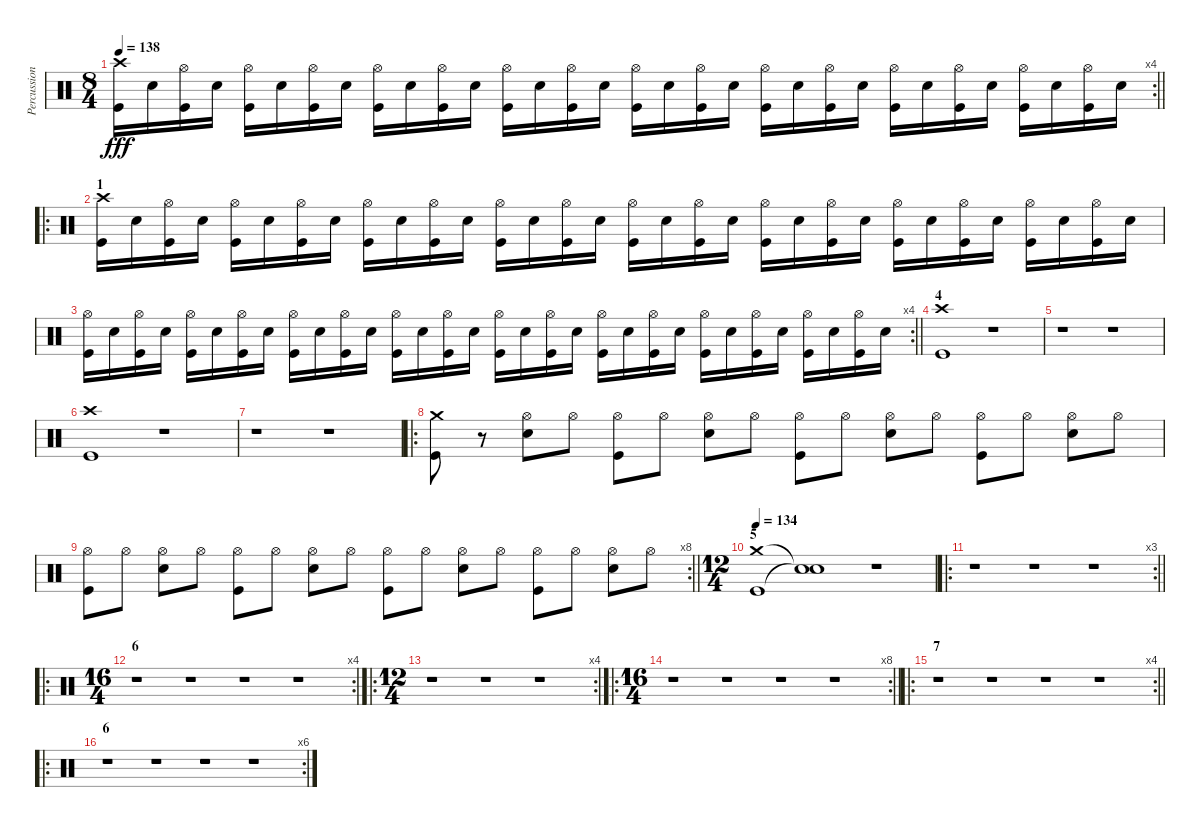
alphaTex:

\track ("Percussion" "Percussion") {instrument percussion}
\staff {score}
\articulation defaults
\rc 4
\ts (8 4)
\tempo 138
\clef neutral
\barLineRight lightlight
\ks c
("Crash high (hit)" "Kick (hit)").16{dy fff} "Snare (hit) 2".16 ("Hi-Hat (open)" "Kick (hit)").16 "Snare (hit) 2".16 ("Hi-Hat (open)" "Kick (hit)").16 "Snare (hit) 2".16 ("Hi-Hat (open)" "Kick (hit)").16 "Snare (hit) 2".16 ("Hi-Hat (open)" "Kick (hit)").16 "Snare (hit) 2".16 ("Hi-Hat (open)" "Kick (hit)").16 "Snare (hit) 2".16 ("Hi-Hat (open)" "Kick (hit)").16 "Snare (hit) 2".16 ("Hi-Hat (open)" "Kick (hit)").16 "Snare (hit) 2".16 ("Hi-Hat (open)" "Kick (hit)").16 "Snare (hit) 2".16 ("Hi-Hat (open)" "Kick (hit)").16 "Snare (hit) 2".16 ("Hi-Hat (open)" "Kick (hit)").16 "Snare (hit) 2".16 ("Hi-Hat (open)" "Kick (hit)").16 "Snare (hit) 2".16 ("Hi-Hat (open)" "Kick (hit)").16 "Snare (hit) 2".16 ("Hi-Hat (open)" "Kick (hit)").16 "Snare (hit) 2".16 ("Hi-Hat (open)" "Kick (hit)").16 "Snare (hit) 2".16 ("Hi-Hat (open)" "Kick (hit)").16 "Snare (hit) 2".16 |
\ro
\section ("" "1")
("Crash high (hit)" "Kick (hit)").16 "Snare (hit) 2".16 ("Hi-Hat (open)" "Kick (hit)").16 "Snare (hit) 2".16 ("Hi-Hat (open)" "Kick (hit)").16 "Snare (hit) 2".16 ("Hi-Hat (open)" "Kick (hit)").16 "Snare (hit) 2".16 ("Hi-Hat (open)" "Kick (hit)").16 "Snare (hit) 2".16 ("Hi-Hat (open)" "Kick (hit)").16 "Snare (hit) 2".16 ("Hi-Hat (open)" "Kick (hit)").16 "Snare (hit) 2".16 ("Hi-Hat (open)" "Kick (hit)").16 "Snare (hit) 2".16 ("Hi-Hat (open)" "Kick (hit)").16 "Snare (hit) 2".16 ("Hi-Hat (open)" "Kick (hit)").16 "Snare (hit) 2".16 ("Hi-Hat (open)" "Kick (hit)").16 "Snare (hit) 2".16 ("Hi-Hat (open)" "Kick (hit)").16 "Snare (hit) 2".16 ("Hi-Hat (open)" "Kick (hit)").16 "Snare (hit) 2".16 ("Hi-Hat (open)" "Kick (hit)").16 "Snare (hit) 2".16 ("Hi-Hat (open)" "Kick (hit)").16 "Snare (hit) 2".16 ("Hi-Hat (open)" "Kick (hit)").16 "Snare (hit) 2".16 |
\rc 4
\barLineRight lightlight
("Hi-Hat (open)" "Kick (hit)").16 "Snare (hit) 2".16 ("Hi-Hat (open)" "Kick (hit)").16 "Snare (hit) 2".16 ("Hi-Hat (open)" "Kick (hit)").16 "Snare (hit) 2".16 ("Hi-Hat (open)" "Kick (hit)").16 "Snare (hit) 2".16 ("Hi-Hat (open)" "Kick (hit)").16 "Snare (hit) 2".16 ("Hi-Hat (open)" "Kick (hit)").16 "Snare (hit) 2".16 ("Hi-Hat (open)" "Kick (hit)").16 "Snare (hit) 2".16 ("Hi-Hat (open)" "Kick (hit)").16 "Snare (hit) 2".16 ("Hi-Hat (open)" "Kick (hit)").16 "Snare (hit) 2".16 ("Hi-Hat (open)" "Kick (hit)").16 "Snare (hit) 2".16 ("Hi-Hat (open)" "Kick (hit)").16 "Snare (hit) 2".16 ("Hi-Hat (open)" "Kick (hit)").16 "Snare (hit) 2".16 ("Hi-Hat (open)" "Kick (hit)").16 "Snare (hit) 2".16 ("Hi-Hat (open)" "Kick (hit)").16 "Snare (hit) 2".16 ("Hi-Hat (open)" "Kick (hit)").16 "Snare (hit) 2".16 ("Hi-Hat (open)" "Kick (hit)").16 "Snare (hit) 2".16 |
\section ("" "4")
("Crash high (hit)" "Kick (hit)").1 r.1 |
r.1 r.1 |
("Crash high (hit)" "Kick (hit)").1 r.1 |
r.1 r.1 |
\ro
("Crash medium (hit)" "Kick (hit)").8 r.8 ("Hi-Hat (open)" "Snare (hit) 2").8 "Hi-Hat (open)".8 ("Hi-Hat (open)" "Kick (hit)").8 "Hi-Hat (open)".8 ("Hi-Hat (open)" "Snare (hit) 2").8 "Hi-Hat (open)".8 ("Hi-Hat (open)" "Kick (hit)").8 "Hi-Hat (open)".8 ("Hi-Hat (open)" "Snare (hit) 2").8 "Hi-Hat (open)".8 ("Hi-Hat (open)" "Kick (hit)").8 "Hi-Hat (open)".8 ("Hi-Hat (open)" "Snare (hit) 2").8 "Hi-Hat (open)".8 |
\rc 8
\barLineRight lightlight
("Hi-Hat (open)" "Kick (hit)").8 "Hi-Hat (open)".8 ("Hi-Hat (open)" "Snare (hit) 2").8 "Hi-Hat (open)".8 ("Hi-Hat (open)" "Kick (hit)").8 "Hi-Hat (open)".8 ("Hi-Hat (open)" "Snare (hit) 2").8 "Hi-Hat (open)".8 ("Hi-Hat (open)" "Kick (hit)").8 "Hi-Hat (open)".8 ("Hi-Hat (open)" "Snare (hit) 2").8 "Hi-Hat (open)".8 ("Hi-Hat (open)" "Kick (hit)").8 "Hi-Hat (open)".8 ("Hi-Hat (open)" "Snare (hit) 2").8 "Hi-Hat (open)".8 |
\ts (12 4)
\section ("" "5")
\tempo 134
("Crash medium (hit)" "Kick (hit)").1 ("Snare (hit)"{t} "Snare (hit)"{t}).1 r.1 |
\ro
\rc 3
\barLineRight lightlight
r.1 r.1 r.1 |
\ro
\rc 4
\ts (16 4)
\section ("" "6")
r.1 r.1 r.1 r.1 |
\ro
\rc 4
\ts (12 4)
r.1 r.1 r.1 |
\ro
\rc 8
\ts (16 4)
\barLineRight lightlight
r.1 r.1 r.1 r.1 |
\ro
\rc 4
\section ("" "7")
\barLineRight lightlight
r.1 r.1 r.1 r.1 |
\ro
\rc 6
\section ("" "6")
r.1 r.1 r.1 r.1
